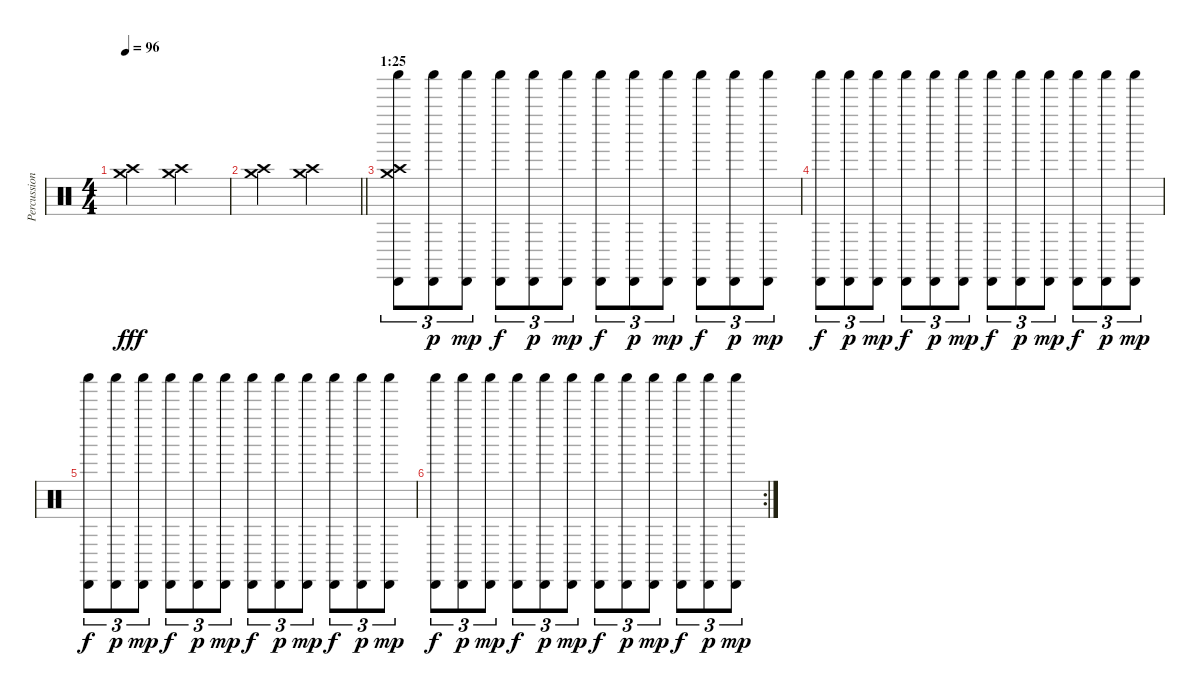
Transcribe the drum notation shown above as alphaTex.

\track ("Percussion" "Percussion") {instrument percussion}
\staff {score}
\articulation defaults
\ts (4 4)
\tempo 96
\clef neutral
\ks c
("Crash medium (hit)" "Crash high (hit)").2{dy fff} ("Crash medium (hit)" "Crash high (hit)").2 |
\barLineRight lightlight
("Crash medium (hit)" "Crash high (hit)").2 ("Crash medium (hit)" "Crash high (hit)").2 |
\section ("" "1:25")
("Shaker (hit)" "Cabasa (hit)" "Crash medium (hit)" "Crash high (hit)").8{tu (3 2)} ("Shaker (hit)" "Cabasa (hit)").8{tu (3 2) dy p} ("Shaker (hit)" "Cabasa (hit)").8{tu (3 2) dy mp} ("Shaker (hit)" "Cabasa (hit)").8{tu (3 2) dy f} ("Shaker (hit)" "Cabasa (hit)").8{tu (3 2) dy p} ("Shaker (hit)" "Cabasa (hit)").8{tu (3 2) dy mp} ("Shaker (hit)" "Cabasa (hit)").8{tu (3 2) dy f} ("Shaker (hit)" "Cabasa (hit)").8{tu (3 2) dy p} ("Shaker (hit)" "Cabasa (hit)").8{tu (3 2) dy mp} ("Shaker (hit)" "Cabasa (hit)").8{tu (3 2) dy f} ("Shaker (hit)" "Cabasa (hit)").8{tu (3 2) dy p} ("Shaker (hit)" "Cabasa (hit)").8{tu (3 2) dy mp} |
("Shaker (hit)" "Cabasa (hit)").8{tu (3 2) dy f} ("Shaker (hit)" "Cabasa (hit)").8{tu (3 2) dy p} ("Shaker (hit)" "Cabasa (hit)").8{tu (3 2) dy mp} ("Shaker (hit)" "Cabasa (hit)").8{tu (3 2) dy f} ("Shaker (hit)" "Cabasa (hit)").8{tu (3 2) dy p} ("Shaker (hit)" "Cabasa (hit)").8{tu (3 2) dy mp} ("Shaker (hit)" "Cabasa (hit)").8{tu (3 2) dy f} ("Shaker (hit)" "Cabasa (hit)").8{tu (3 2) dy p} ("Shaker (hit)" "Cabasa (hit)").8{tu (3 2) dy mp} ("Shaker (hit)" "Cabasa (hit)").8{tu (3 2) dy f} ("Shaker (hit)" "Cabasa (hit)").8{tu (3 2) dy p} ("Shaker (hit)" "Cabasa (hit)").8{tu (3 2) dy mp} |
("Shaker (hit)" "Cabasa (hit)").8{tu (3 2) dy f} ("Shaker (hit)" "Cabasa (hit)").8{tu (3 2) dy p} ("Shaker (hit)" "Cabasa (hit)").8{tu (3 2) dy mp} ("Shaker (hit)" "Cabasa (hit)").8{tu (3 2) dy f} ("Shaker (hit)" "Cabasa (hit)").8{tu (3 2) dy p} ("Shaker (hit)" "Cabasa (hit)").8{tu (3 2) dy mp} ("Shaker (hit)" "Cabasa (hit)").8{tu (3 2) dy f} ("Shaker (hit)" "Cabasa (hit)").8{tu (3 2) dy p} ("Shaker (hit)" "Cabasa (hit)").8{tu (3 2) dy mp} ("Shaker (hit)" "Cabasa (hit)").8{tu (3 2) dy f} ("Shaker (hit)" "Cabasa (hit)").8{tu (3 2) dy p} ("Shaker (hit)" "Cabasa (hit)").8{tu (3 2) dy mp} |
\rc 2
("Shaker (hit)" "Cabasa (hit)").8{tu (3 2) dy f} ("Shaker (hit)" "Cabasa (hit)").8{tu (3 2) dy p} ("Shaker (hit)" "Cabasa (hit)").8{tu (3 2) dy mp} ("Shaker (hit)" "Cabasa (hit)").8{tu (3 2) dy f} ("Shaker (hit)" "Cabasa (hit)").8{tu (3 2) dy p} ("Shaker (hit)" "Cabasa (hit)").8{tu (3 2) dy mp} ("Shaker (hit)" "Cabasa (hit)").8{tu (3 2) dy f} ("Shaker (hit)" "Cabasa (hit)").8{tu (3 2) dy p} ("Shaker (hit)" "Cabasa (hit)").8{tu (3 2) dy mp} ("Shaker (hit)" "Cabasa (hit)").8{tu (3 2) dy f} ("Shaker (hit)" "Cabasa (hit)").8{tu (3 2) dy p} ("Shaker (hit)" "Cabasa (hit)").8{tu (3 2) dy mp}
